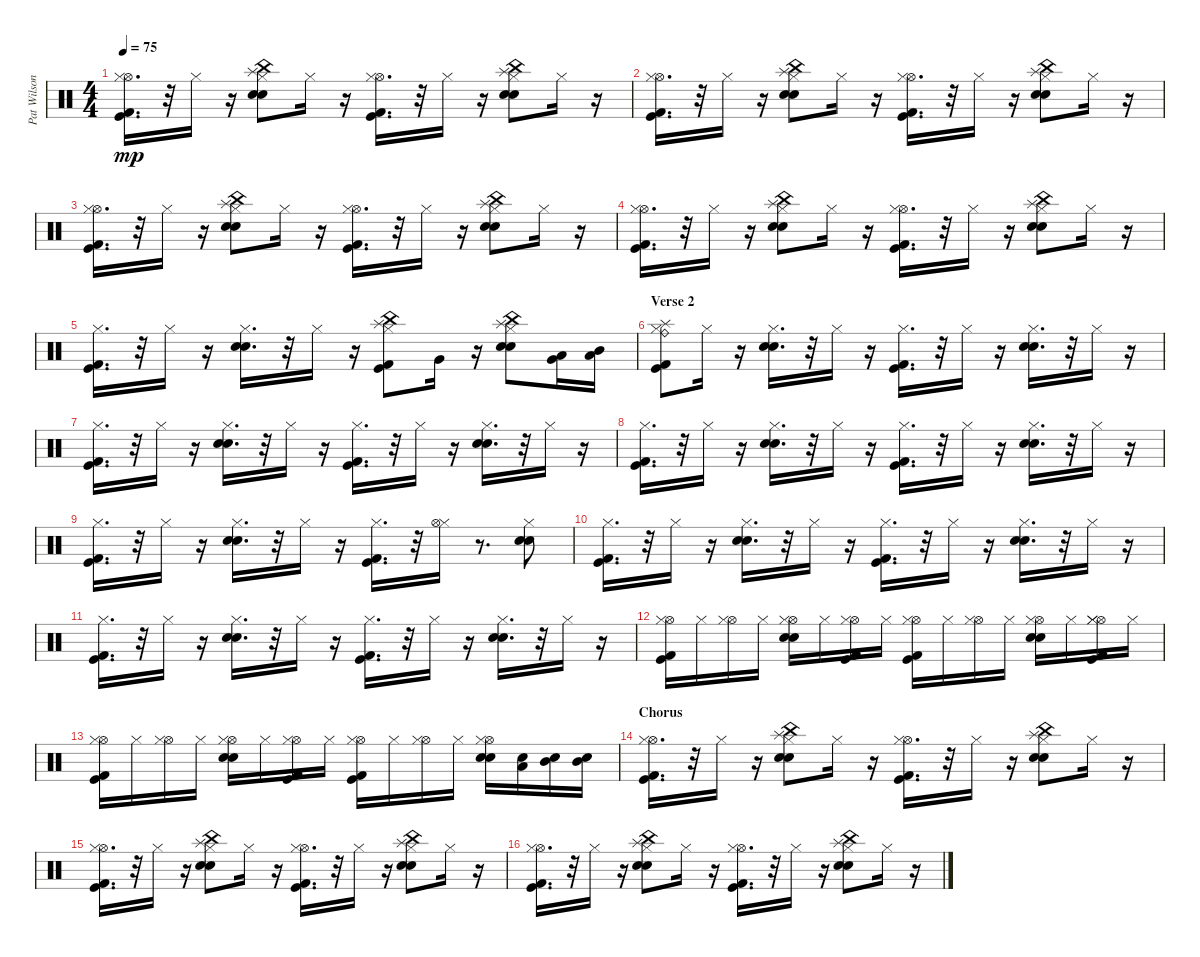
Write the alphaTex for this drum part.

\track ("Pat Wilson - Drums" "Pat Wilson") {instrument percussion}
\staff {score}
\articulation defaults
\ts (4 4)
\tempo 75
\clef neutral
\ks c
("Hi-Hat (open)" "Kick (hit) 2" "Kick (hit)" "Hi-Hat (closed)").16{d dy mp} r.32 "Hi-Hat (closed)".16 r.16 ("Splash (hit)" "China (hit)" "Snare (hit) 2" "Electric Snare (hit)" "Hi-Hat (closed)").8 "Hi-Hat (closed)".16 r.16 ("Hi-Hat (open)" "Kick (hit) 2" "Kick (hit)" "Hi-Hat (closed)").16{d} r.32 "Hi-Hat (closed)".16 r.16 ("Splash (hit)" "China (hit)" "Snare (hit) 2" "Electric Snare (hit)" "Hi-Hat (closed)").8 "Hi-Hat (closed)".16 r.16 |
("Hi-Hat (open)" "Kick (hit) 2" "Kick (hit)" "Hi-Hat (closed)").16{d} r.32 "Hi-Hat (closed)".16 r.16 ("Splash (hit)" "China (hit)" "Snare (hit) 2" "Electric Snare (hit)" "Hi-Hat (closed)").8 "Hi-Hat (closed)".16 r.16 ("Hi-Hat (open)" "Kick (hit) 2" "Kick (hit)" "Hi-Hat (closed)").16{d} r.32 "Hi-Hat (closed)".16 r.16 ("Splash (hit)" "China (hit)" "Snare (hit) 2" "Electric Snare (hit)" "Hi-Hat (closed)").8 "Hi-Hat (closed)".16 r.16 |
("Hi-Hat (open)" "Kick (hit) 2" "Kick (hit)" "Hi-Hat (closed)").16{d} r.32 "Hi-Hat (closed)".16 r.16 ("Splash (hit)" "China (hit)" "Snare (hit) 2" "Electric Snare (hit)" "Hi-Hat (closed)").8 "Hi-Hat (closed)".16 r.16 ("Hi-Hat (open)" "Kick (hit) 2" "Kick (hit)" "Hi-Hat (closed)").16{d} r.32 "Hi-Hat (closed)".16 r.16 ("Splash (hit)" "China (hit)" "Snare (hit) 2" "Electric Snare (hit)" "Hi-Hat (closed)").8 "Hi-Hat (closed)".16 r.16 |
("Hi-Hat (open)" "Kick (hit) 2" "Kick (hit)" "Hi-Hat (closed)").16{d} r.32 "Hi-Hat (closed)".16 r.16 ("Splash (hit)" "China (hit)" "Snare (hit) 2" "Electric Snare (hit)" "Hi-Hat (closed)").8 "Hi-Hat (closed)".16 r.16 ("Hi-Hat (open)" "Kick (hit) 2" "Kick (hit)" "Hi-Hat (closed)").16{d} r.32 "Hi-Hat (closed)".16 r.16 ("Splash (hit)" "China (hit)" "Snare (hit) 2" "Electric Snare (hit)" "Hi-Hat (closed)").8 "Hi-Hat (closed)".16 r.16 |
("Kick (hit) 2" "Kick (hit)" "Hi-Hat (closed)").16{d} r.32 "Hi-Hat (closed)".16 r.16 ("Snare (hit) 2" "Electric Snare (hit)" "Hi-Hat (closed)").16{d} r.32 "Hi-Hat (closed)".16 r.16 ("China (hit)" "Splash (hit)" "Kick (hit) 2" "Kick (hit)" "Hi-Hat (closed)").8 "Very Low Tom (hit)".16 r.16 ("China (hit)" "Splash (hit)" "Snare (hit) 2" "Electric Snare (hit)" "Hi-Hat (closed)").8 ("Low Tom (hit)" "Very Low Tom (hit)").16 ("Low Floor Tom (hit)" "Mid Tom (hit)").16 |
\section ("" "Verse 2")
("Splash (hit)" "Ride (bell)" "Kick (hit) 2" "Kick (hit)" "Hi-Hat (closed)").8 "Hi-Hat (closed)".16 r.16 ("Snare (hit) 2" "Electric Snare (hit)" "Hi-Hat (closed)").16{d} r.32 "Hi-Hat (closed)".16 r.16 ("Kick (hit) 2" "Kick (hit)" "Hi-Hat (closed)").16{d} r.32 "Hi-Hat (closed)".16 r.16 ("Snare (hit) 2" "Electric Snare (hit)" "Hi-Hat (closed)").16{d} r.32 "Hi-Hat (closed)".16 r.16 |
("Kick (hit) 2" "Kick (hit)" "Hi-Hat (closed)").16{d} r.32 "Hi-Hat (closed)".16 r.16 ("Snare (hit) 2" "Electric Snare (hit)" "Hi-Hat (closed)").16{d} r.32 "Hi-Hat (closed)".16 r.16 ("Kick (hit) 2" "Kick (hit)" "Hi-Hat (closed)").16{d} r.32 "Hi-Hat (closed)".16 r.16 ("Snare (hit) 2" "Electric Snare (hit)" "Hi-Hat (closed)").16{d} r.32 "Hi-Hat (closed)".16 r.16 |
("Kick (hit) 2" "Kick (hit)" "Hi-Hat (closed)").16{d} r.32 "Hi-Hat (closed)".16 r.16 ("Snare (hit) 2" "Electric Snare (hit)" "Hi-Hat (closed)").16{d} r.32 "Hi-Hat (closed)".16 r.16 ("Kick (hit) 2" "Kick (hit)" "Hi-Hat (closed)").16{d} r.32 "Hi-Hat (closed)".16 r.16 ("Snare (hit) 2" "Electric Snare (hit)" "Hi-Hat (closed)").16{d} r.32 "Hi-Hat (closed)".16 r.16 |
("Kick (hit) 2" "Kick (hit)" "Hi-Hat (closed)").16{d} r.32 "Hi-Hat (closed)".16 r.16 ("Snare (hit) 2" "Electric Snare (hit)" "Hi-Hat (closed)").16{d} r.32 "Hi-Hat (closed)".16 r.16 ("Kick (hit) 2" "Kick (hit)" "Hi-Hat (closed)").16{d} r.32 ("Hi-Hat (closed)" "Hi-Hat (open)").16 r.8{d} ("Snare (hit) 2" "Electric Snare (hit)" "Hi-Hat (closed)").8 |
("Kick (hit) 2" "Kick (hit)" "Hi-Hat (closed)").16{d} r.32 "Hi-Hat (closed)".16 r.16 ("Snare (hit) 2" "Electric Snare (hit)" "Hi-Hat (closed)").16{d} r.32 "Hi-Hat (closed)".16 r.16 ("Kick (hit) 2" "Kick (hit)" "Hi-Hat (closed)").16{d} r.32 "Hi-Hat (closed)".16 r.16 ("Snare (hit) 2" "Electric Snare (hit)" "Hi-Hat (closed)").16{d} r.32 "Hi-Hat (closed)".16 r.16 |
("Kick (hit) 2" "Kick (hit)" "Hi-Hat (closed)").16{d} r.32 "Hi-Hat (closed)".16 r.16 ("Snare (hit) 2" "Electric Snare (hit)" "Hi-Hat (closed)").16{d} r.32 "Hi-Hat (closed)".16 r.16 ("Kick (hit) 2" "Kick (hit)" "Hi-Hat (closed)").16{d} r.32 "Hi-Hat (closed)".16 r.16 ("Snare (hit) 2" "Electric Snare (hit)" "Hi-Hat (closed)").16{d} r.32 "Hi-Hat (closed)".16 r.16 |
("Kick (hit) 2" "Kick (hit)" "Hi-Hat (open)" "Hi-Hat (closed)").16 "Hi-Hat (closed)".16 ("Hi-Hat (open)" "Hi-Hat (closed)").16 "Hi-Hat (closed)".16 ("Snare (hit) 2" "Electric Snare (hit)" "Hi-Hat (open)" "Hi-Hat (closed)").16 "Hi-Hat (closed)".16 ("Kick (hit) 2" "Kick (hit)" "Hi-Hat (open)" "Hi-Hat (closed)").16 "Hi-Hat (closed)".16 ("Kick (hit) 2" "Kick (hit)" "Hi-Hat (open)" "Hi-Hat (closed)").16 "Hi-Hat (closed)".16 ("Hi-Hat (open)" "Hi-Hat (closed)").16 "Hi-Hat (closed)".16 ("Snare (hit) 2" "Electric Snare (hit)" "Hi-Hat (open)" "Hi-Hat (closed)").16 "Hi-Hat (closed)".16 ("Kick (hit) 2" "Kick (hit)" "Hi-Hat (open)" "Hi-Hat (closed)" "Hi-Hat (closed)").16 "Hi-Hat (closed)".16 |
("Kick (hit) 2" "Kick (hit)" "Hi-Hat (open)" "Hi-Hat (closed)").16 "Hi-Hat (closed)".16 ("Hi-Hat (open)" "Hi-Hat (closed)").16 "Hi-Hat (closed)".16 ("Snare (hit) 2" "Electric Snare (hit)" "Hi-Hat (open)" "Hi-Hat (closed)").16 "Hi-Hat (closed)".16 ("Kick (hit) 2" "Kick (hit)" "Hi-Hat (open)" "Hi-Hat (closed)").16 "Hi-Hat (closed)".16 ("Kick (hit) 2" "Kick (hit)" "Hi-Hat (open)" "Hi-Hat (closed)").16 "Hi-Hat (closed)".16 ("Hi-Hat (open)" "Hi-Hat (closed)").16 "Hi-Hat (closed)".16 ("Electric Snare (hit)" "Snare (hit) 2" "Hi-Hat (open)" "Hi-Hat (closed)").16 ("Low Tom (hit)" "Electric Snare (hit)").16 ("Mid Tom (hit)" "Electric Snare (hit)").16 ("Mid Tom (hit)" "Electric Snare (hit)").16 |
\section ("" "Chorus")
("Hi-Hat (open)" "Kick (hit) 2" "Kick (hit)" "Hi-Hat (closed)").16{d} r.32 "Hi-Hat (closed)".16 r.16 ("Splash (hit)" "China (hit)" "Snare (hit) 2" "Electric Snare (hit)" "Hi-Hat (closed)").8 "Hi-Hat (closed)".16 r.16 ("Hi-Hat (open)" "Kick (hit) 2" "Kick (hit)" "Hi-Hat (closed)").16{d} r.32 "Hi-Hat (closed)".16 r.16 ("Splash (hit)" "China (hit)" "Snare (hit) 2" "Electric Snare (hit)" "Hi-Hat (closed)").8 "Hi-Hat (closed)".16 r.16 |
("Hi-Hat (open)" "Kick (hit) 2" "Kick (hit)" "Hi-Hat (closed)").16{d} r.32 "Hi-Hat (closed)".16 r.16 ("Splash (hit)" "China (hit)" "Snare (hit) 2" "Electric Snare (hit)" "Hi-Hat (closed)").8 "Hi-Hat (closed)".16 r.16 ("Hi-Hat (open)" "Kick (hit) 2" "Kick (hit)" "Hi-Hat (closed)").16{d} r.32 "Hi-Hat (closed)".16 r.16 ("Splash (hit)" "China (hit)" "Snare (hit) 2" "Electric Snare (hit)" "Hi-Hat (closed)").8 "Hi-Hat (closed)".16 r.16 |
("Hi-Hat (open)" "Kick (hit) 2" "Kick (hit)" "Hi-Hat (closed)").16{d} r.32 "Hi-Hat (closed)".16 r.16 ("Splash (hit)" "China (hit)" "Snare (hit) 2" "Electric Snare (hit)" "Hi-Hat (closed)").8 "Hi-Hat (closed)".16 r.16 ("Hi-Hat (open)" "Kick (hit) 2" "Kick (hit)" "Hi-Hat (closed)").16{d} r.32 "Hi-Hat (closed)".16 r.16 ("Splash (hit)" "China (hit)" "Snare (hit) 2" "Electric Snare (hit)" "Hi-Hat (closed)").8 "Hi-Hat (closed)".16 r.16
